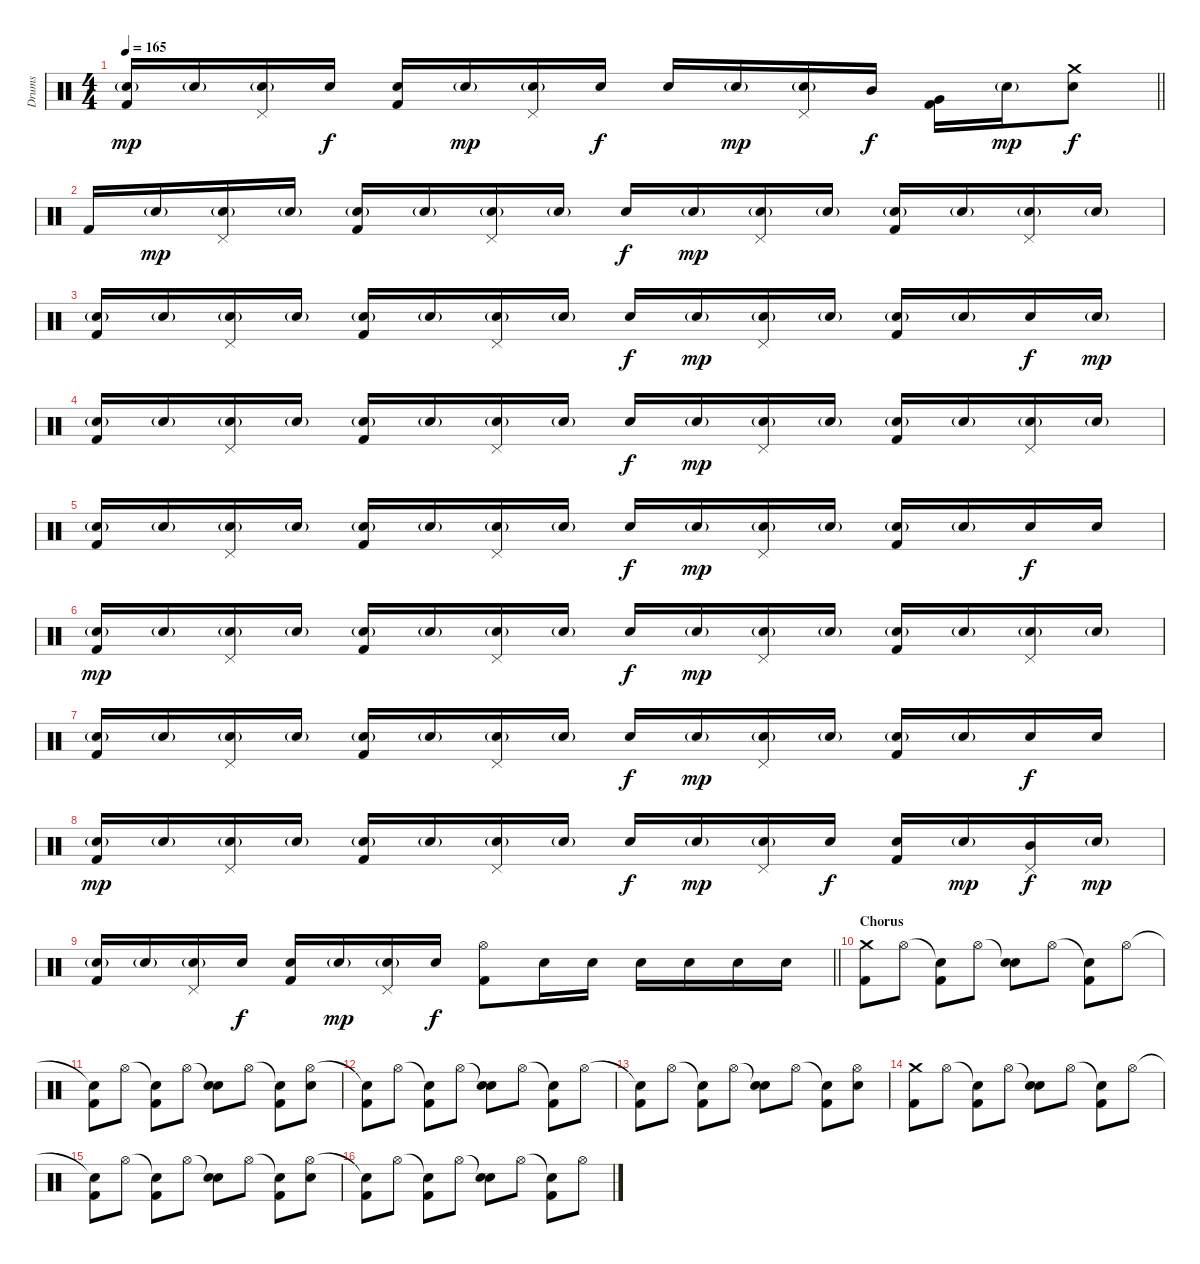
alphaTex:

\track ("Drums" "Drums") {instrument percussion}
\staff {score}
\articulation defaults
\ts (4 4)
\tempo 165
\clef neutral
\barLineRight lightlight
\ks c
("Electric Snare (hit)"{g} "Kick (hit) 2").16{dy mp} "Electric Snare (hit)"{g}.16 ("Pedal Hi-Hat (hit)" "Electric Snare (hit)"{g}).16 "Electric Snare (hit)".16{dy f} ("Electric Snare (hit)" "Kick (hit) 2").16 "Electric Snare (hit)"{g}.16{dy mp} ("Pedal Hi-Hat (hit)" "Electric Snare (hit)"{g}).16 "Electric Snare (hit)".16{dy f} "Electric Snare (hit)".16 "Electric Snare (hit)"{g}.16{dy mp} ("Pedal Hi-Hat (hit)" "Electric Snare (hit)"{g}).16 "Mid Tom (hit)".16{dy f} ("Very Low Tom (hit)" "Kick (hit) 2").16 "Electric Snare (hit)"{g}.16{dy mp} ("Crash medium (hit)" "Electric Snare (hit)").8{dy f} |
"Kick (hit) 2".16 "Electric Snare (hit)"{g}.16{dy mp} ("Pedal Hi-Hat (hit)" "Electric Snare (hit)"{g}).16 "Electric Snare (hit)"{g}.16 ("Electric Snare (hit)"{g} "Kick (hit) 2").16 "Electric Snare (hit)"{g}.16 ("Pedal Hi-Hat (hit)" "Electric Snare (hit)"{g}).16 "Electric Snare (hit)"{g}.16 "Electric Snare (hit)".16{dy f} "Electric Snare (hit)"{g}.16{dy mp} ("Pedal Hi-Hat (hit)" "Electric Snare (hit)"{g}).16 "Electric Snare (hit)"{g}.16 ("Electric Snare (hit)"{g} "Kick (hit) 2").16 "Electric Snare (hit)"{g}.16 ("Pedal Hi-Hat (hit)" "Electric Snare (hit)"{g}).16 "Electric Snare (hit)"{g}.16 |
("Electric Snare (hit)"{g} "Kick (hit) 2").16 "Electric Snare (hit)"{g}.16 ("Pedal Hi-Hat (hit)" "Electric Snare (hit)"{g}).16 "Electric Snare (hit)"{g}.16 ("Electric Snare (hit)"{g} "Kick (hit) 2").16 "Electric Snare (hit)"{g}.16 ("Pedal Hi-Hat (hit)" "Electric Snare (hit)"{g}).16 "Electric Snare (hit)"{g}.16 "Electric Snare (hit)".16{dy f} "Electric Snare (hit)"{g}.16{dy mp} ("Pedal Hi-Hat (hit)" "Electric Snare (hit)"{g}).16 "Electric Snare (hit)"{g}.16 ("Electric Snare (hit)"{g} "Kick (hit) 2").16 "Electric Snare (hit)"{g}.16 "Electric Snare (hit)".16{dy f} "Electric Snare (hit)"{g}.16{dy mp} |
("Electric Snare (hit)"{g} "Kick (hit) 2").16 "Electric Snare (hit)"{g}.16 ("Pedal Hi-Hat (hit)" "Electric Snare (hit)"{g}).16 "Electric Snare (hit)"{g}.16 ("Electric Snare (hit)"{g} "Kick (hit) 2").16 "Electric Snare (hit)"{g}.16 ("Pedal Hi-Hat (hit)" "Electric Snare (hit)"{g}).16 "Electric Snare (hit)"{g}.16 "Electric Snare (hit)".16{dy f} "Electric Snare (hit)"{g}.16{dy mp} ("Pedal Hi-Hat (hit)" "Electric Snare (hit)"{g}).16 "Electric Snare (hit)"{g}.16 ("Electric Snare (hit)"{g} "Kick (hit) 2").16 "Electric Snare (hit)"{g}.16 ("Pedal Hi-Hat (hit)" "Electric Snare (hit)"{g}).16 "Electric Snare (hit)"{g}.16 |
("Electric Snare (hit)"{g} "Kick (hit) 2").16 "Electric Snare (hit)"{g}.16 ("Pedal Hi-Hat (hit)" "Electric Snare (hit)"{g}).16 "Electric Snare (hit)"{g}.16 ("Electric Snare (hit)"{g} "Kick (hit) 2").16 "Electric Snare (hit)"{g}.16 ("Pedal Hi-Hat (hit)" "Electric Snare (hit)"{g}).16 "Electric Snare (hit)"{g}.16 "Electric Snare (hit)".16{dy f} "Electric Snare (hit)"{g}.16{dy mp} ("Pedal Hi-Hat (hit)" "Electric Snare (hit)"{g}).16 "Electric Snare (hit)"{g}.16 ("Electric Snare (hit)"{g} "Kick (hit) 2").16 "Electric Snare (hit)"{g}.16 "Electric Snare (hit)".16{dy f} "Electric Snare (hit)".16 |
("Electric Snare (hit)"{g} "Kick (hit) 2").16{dy mp} "Electric Snare (hit)"{g}.16 ("Pedal Hi-Hat (hit)" "Electric Snare (hit)"{g}).16 "Electric Snare (hit)"{g}.16 ("Electric Snare (hit)"{g} "Kick (hit) 2").16 "Electric Snare (hit)"{g}.16 ("Pedal Hi-Hat (hit)" "Electric Snare (hit)"{g}).16 "Electric Snare (hit)"{g}.16 "Electric Snare (hit)".16{dy f} "Electric Snare (hit)"{g}.16{dy mp} ("Pedal Hi-Hat (hit)" "Electric Snare (hit)"{g}).16 "Electric Snare (hit)"{g}.16 ("Electric Snare (hit)"{g} "Kick (hit) 2").16 "Electric Snare (hit)"{g}.16 ("Pedal Hi-Hat (hit)" "Electric Snare (hit)"{g}).16 "Electric Snare (hit)"{g}.16 |
("Electric Snare (hit)"{g} "Kick (hit) 2").16 "Electric Snare (hit)"{g}.16 ("Pedal Hi-Hat (hit)" "Electric Snare (hit)"{g}).16 "Electric Snare (hit)"{g}.16 ("Electric Snare (hit)"{g} "Kick (hit) 2").16 "Electric Snare (hit)"{g}.16 ("Pedal Hi-Hat (hit)" "Electric Snare (hit)"{g}).16 "Electric Snare (hit)"{g}.16 "Electric Snare (hit)".16{dy f} "Electric Snare (hit)"{g}.16{dy mp} ("Pedal Hi-Hat (hit)" "Electric Snare (hit)"{g}).16 "Electric Snare (hit)"{g}.16 ("Electric Snare (hit)"{g} "Kick (hit) 2").16 "Electric Snare (hit)"{g}.16 "Electric Snare (hit)".16{dy f} "Electric Snare (hit)".16 |
("Electric Snare (hit)"{g} "Kick (hit) 2").16{dy mp} "Electric Snare (hit)"{g}.16 ("Pedal Hi-Hat (hit)" "Electric Snare (hit)"{g}).16 "Electric Snare (hit)"{g}.16 ("Electric Snare (hit)"{g} "Kick (hit) 2").16 "Electric Snare (hit)"{g}.16 ("Pedal Hi-Hat (hit)" "Electric Snare (hit)"{g}).16 "Electric Snare (hit)"{g}.16 "Electric Snare (hit)".16{dy f} "Electric Snare (hit)"{g}.16{dy mp} ("Pedal Hi-Hat (hit)" "Electric Snare (hit)"{g}).16 "Electric Snare (hit)".16{dy f} ("Electric Snare (hit)" "Kick (hit) 2").16 "Electric Snare (hit)"{g}.16{dy mp} ("Pedal Hi-Hat (hit)" "Mid Tom (hit)").16{dy f} "Electric Snare (hit)"{g}.16{dy mp} |
\barLineRight lightlight
("Electric Snare (hit)"{g} "Kick (hit) 2").16 "Electric Snare (hit)"{g}.16 ("Pedal Hi-Hat (hit)" "Electric Snare (hit)"{g}).16 "Electric Snare (hit)".16{dy f} ("Electric Snare (hit)" "Kick (hit) 2").16 "Electric Snare (hit)"{g}.16{dy mp} ("Pedal Hi-Hat (hit)" "Electric Snare (hit)"{g}).16 "Electric Snare (hit)".16{dy f} ("Hi-Hat (open)" "Kick (hit) 2").8 "Electric Snare (hit)".16 "Electric Snare (hit)".16 "Electric Snare (hit)".16 "Electric Snare (hit)".16 "Electric Snare (hit)".16 "Electric Snare (hit)".16 |
\section ("" "Chorus")
("Crash medium (hit)" "Kick (hit) 2").8 "Hi-Hat (open)".8 ("Snare (hit)"{t} "Kick (hit) 2").8 "Hi-Hat (open)".8 ("Snare (hit)"{t} "Electric Snare (hit)").8 "Hi-Hat (open)".8 ("Snare (hit)"{t} "Kick (hit) 2").8 "Hi-Hat (open)".8 |
("Snare (hit)"{t} "Kick (hit) 2").8 "Hi-Hat (open)".8 ("Snare (hit)"{t} "Kick (hit) 2").8 "Hi-Hat (open)".8 ("Snare (hit)"{t} "Electric Snare (hit)").8 "Hi-Hat (open)".8 ("Snare (hit)"{t} "Kick (hit) 2").8 ("Hi-Hat (open)" "Electric Snare (hit)").8 |
("Snare (hit)"{t} "Kick (hit) 2").8 "Hi-Hat (open)".8 ("Snare (hit)"{t} "Kick (hit) 2").8 "Hi-Hat (open)".8 ("Snare (hit)"{t} "Electric Snare (hit)").8 "Hi-Hat (open)".8 ("Snare (hit)"{t} "Kick (hit) 2").8 "Hi-Hat (open)".8 |
("Snare (hit)"{t} "Kick (hit) 2").8 "Hi-Hat (open)".8 ("Snare (hit)"{t} "Kick (hit) 2").8 "Hi-Hat (open)".8 ("Snare (hit)"{t} "Electric Snare (hit)").8 "Hi-Hat (open)".8 ("Snare (hit)"{t} "Kick (hit) 2").8 ("Hi-Hat (open)" "Electric Snare (hit)").8 |
("Crash medium (hit)" "Kick (hit) 2").8 "Hi-Hat (open)".8 ("Snare (hit)"{t} "Kick (hit) 2").8 "Hi-Hat (open)".8 ("Snare (hit)"{t} "Electric Snare (hit)").8 "Hi-Hat (open)".8 ("Snare (hit)"{t} "Kick (hit) 2").8 "Hi-Hat (open)".8 |
("Snare (hit)"{t} "Kick (hit) 2").8 "Hi-Hat (open)".8 ("Snare (hit)"{t} "Kick (hit) 2").8 "Hi-Hat (open)".8 ("Snare (hit)"{t} "Electric Snare (hit)").8 "Hi-Hat (open)".8 ("Snare (hit)"{t} "Kick (hit) 2").8 ("Hi-Hat (open)" "Electric Snare (hit)").8 |
("Snare (hit)"{t} "Kick (hit) 2").8 "Hi-Hat (open)".8 ("Snare (hit)"{t} "Kick (hit) 2").8 "Hi-Hat (open)".8 ("Snare (hit)"{t} "Electric Snare (hit)").8 "Hi-Hat (open)".8 ("Snare (hit)"{t} "Kick (hit) 2").8 "Hi-Hat (open)".8
